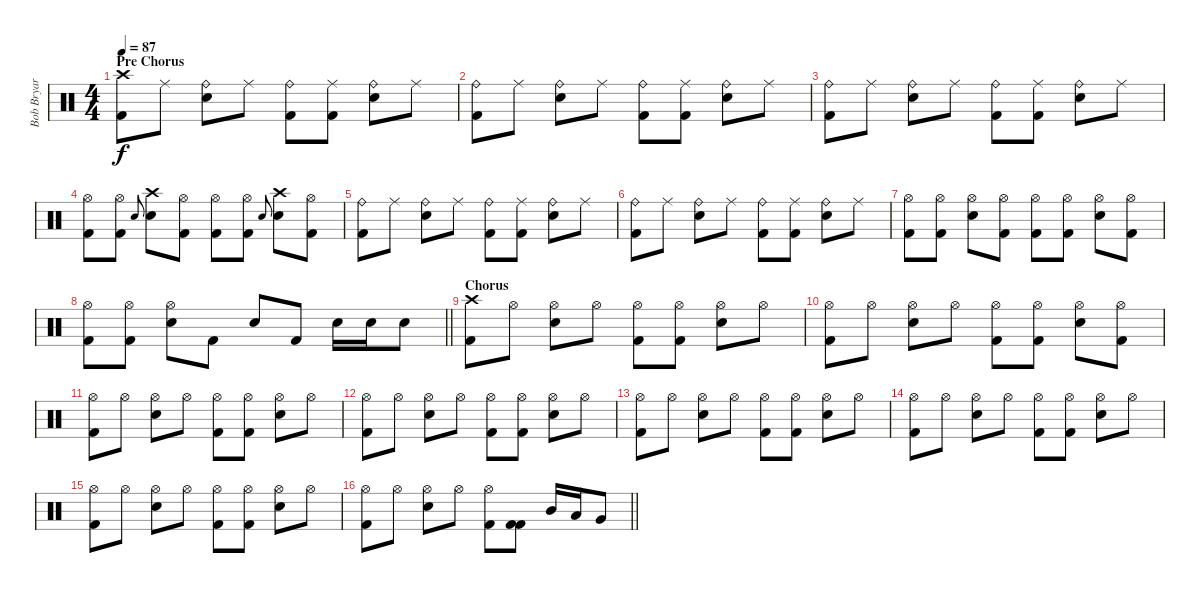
\track ("Bob Bryar" "Bob Bryar") {instrument percussion}
\staff {score}
\articulation defaults
\ts (4 4)
\section ("" "Pre Chorus")
\tempo 87
\clef neutral
\ks c
("Crash high (hit)" "Kick (hit) 2").8{dy f} "Ride (middle)".8 ("Ride (bell)" "Electric Snare (hit)").8 "Ride (middle)".8 ("Ride (bell)" "Kick (hit) 2").8 ("Ride (middle)" "Kick (hit) 2").8 ("Ride (bell)" "Electric Snare (hit)").8 "Ride (middle)".8 |
("Ride (bell)" "Kick (hit) 2").8 "Ride (middle)".8 ("Ride (bell)" "Electric Snare (hit)").8 "Ride (middle)".8 ("Ride (bell)" "Kick (hit) 2").8 ("Ride (middle)" "Kick (hit) 2").8 ("Ride (bell)" "Electric Snare (hit)").8 "Ride (middle)".8 |
("Ride (bell)" "Kick (hit) 2").8 "Ride (middle)".8 ("Ride (bell)" "Electric Snare (hit)").8 "Ride (middle)".8 ("Ride (bell)" "Kick (hit) 2").8 ("Ride (middle)" "Kick (hit) 2").8 ("Ride (bell)" "Electric Snare (hit)").8 "Ride (middle)".8 |
("Hi-Hat (open)" "Kick (hit) 2").8 ("Hi-Hat (open)" "Kick (hit) 2").8 "Electric Snare (hit)".8{gr onbeat} ("Crash high (hit)" "Electric Snare (hit)").8 ("Hi-Hat (open)" "Kick (hit) 2").8 ("Hi-Hat (open)" "Kick (hit) 2").8 ("Hi-Hat (open)" "Kick (hit) 2").8 "Electric Snare (hit)".8{gr onbeat} ("Crash high (hit)" "Electric Snare (hit)").8 ("Hi-Hat (open)" "Kick (hit) 2").8 |
("Ride (bell)" "Kick (hit) 2").8 "Ride (middle)".8 ("Ride (bell)" "Electric Snare (hit)").8 "Ride (middle)".8 ("Ride (bell)" "Kick (hit) 2").8 ("Ride (middle)" "Kick (hit) 2").8 ("Ride (bell)" "Electric Snare (hit)").8 "Ride (middle)".8 |
("Ride (bell)" "Kick (hit) 2").8 "Ride (middle)".8 ("Ride (bell)" "Electric Snare (hit)").8 "Ride (middle)".8 ("Ride (bell)" "Kick (hit) 2").8 ("Ride (middle)" "Kick (hit) 2").8 ("Ride (bell)" "Electric Snare (hit)").8 "Ride (middle)".8 |
("Hi-Hat (open)" "Kick (hit) 2").8 ("Hi-Hat (open)" "Kick (hit) 2").8 ("Hi-Hat (open)" "Electric Snare (hit)").8 ("Hi-Hat (open)" "Kick (hit) 2").8 ("Hi-Hat (open)" "Kick (hit) 2").8 ("Hi-Hat (open)" "Kick (hit) 2").8 ("Hi-Hat (open)" "Electric Snare (hit)").8 ("Hi-Hat (open)" "Kick (hit) 2").8 |
\barLineRight lightlight
("Hi-Hat (open)" "Kick (hit) 2").8 ("Hi-Hat (open)" "Kick (hit) 2").8 ("Hi-Hat (open)" "Electric Snare (hit)").8 "Kick (hit) 2".8 "Electric Snare (hit)".8 "Kick (hit) 2".8 "Electric Snare (hit)".16 "Electric Snare (hit)".16 "Electric Snare (hit)".8 |
\section ("" "Chorus ")
("Crash high (hit)" "Kick (hit) 2").8 "Hi-Hat (open)".8 ("Hi-Hat (open)" "Electric Snare (hit)").8 "Hi-Hat (open)".8 ("Hi-Hat (open)" "Kick (hit) 2").8 ("Hi-Hat (open)" "Kick (hit) 2").8 ("Hi-Hat (open)" "Electric Snare (hit)").8 "Hi-Hat (open)".8 |
("Hi-Hat (open)" "Kick (hit) 2").8 "Hi-Hat (open)".8 ("Hi-Hat (open)" "Electric Snare (hit)").8 "Hi-Hat (open)".8 ("Hi-Hat (open)" "Kick (hit) 2").8 ("Hi-Hat (open)" "Kick (hit) 2").8 ("Hi-Hat (open)" "Electric Snare (hit)").8 ("Hi-Hat (open)" "Kick (hit) 2").8 |
("Hi-Hat (open)" "Kick (hit) 2").8 "Hi-Hat (open)".8 ("Hi-Hat (open)" "Electric Snare (hit)").8 "Hi-Hat (open)".8 ("Hi-Hat (open)" "Kick (hit) 2").8 ("Hi-Hat (open)" "Kick (hit) 2").8 ("Hi-Hat (open)" "Electric Snare (hit)").8 "Hi-Hat (open)".8 |
("Hi-Hat (open)" "Kick (hit) 2").8 "Hi-Hat (open)".8 ("Hi-Hat (open)" "Electric Snare (hit)").8 "Hi-Hat (open)".8 ("Hi-Hat (open)" "Kick (hit) 2").8 ("Hi-Hat (open)" "Kick (hit) 2").8 ("Hi-Hat (open)" "Electric Snare (hit)").8 "Hi-Hat (open)".8 |
("Hi-Hat (open)" "Kick (hit) 2").8 "Hi-Hat (open)".8 ("Hi-Hat (open)" "Electric Snare (hit)").8 "Hi-Hat (open)".8 ("Hi-Hat (open)" "Kick (hit) 2").8 ("Hi-Hat (open)" "Kick (hit) 2").8 ("Hi-Hat (open)" "Electric Snare (hit)").8 "Hi-Hat (open)".8 |
("Hi-Hat (open)" "Kick (hit) 2").8 "Hi-Hat (open)".8 ("Hi-Hat (open)" "Electric Snare (hit)").8 "Hi-Hat (open)".8 ("Hi-Hat (open)" "Kick (hit) 2").8 ("Hi-Hat (open)" "Kick (hit) 2").8 ("Hi-Hat (open)" "Electric Snare (hit)").8 "Hi-Hat (open)".8 |
("Hi-Hat (open)" "Kick (hit) 2").8 "Hi-Hat (open)".8 ("Hi-Hat (open)" "Electric Snare (hit)").8 "Hi-Hat (open)".8 ("Hi-Hat (open)" "Kick (hit) 2").8 ("Hi-Hat (open)" "Kick (hit) 2").8 ("Hi-Hat (open)" "Electric Snare (hit)").8 "Hi-Hat (open)".8 |
\barLineRight lightlight
("Hi-Hat (open)" "Kick (hit) 2").8 "Hi-Hat (open)".8 ("Hi-Hat (open)" "Electric Snare (hit)").8 "Hi-Hat (open)".8 ("Hi-Hat (open)" "Kick (hit) 2").8 ("Kick (hit) 2" "Kick (hit) 2").8 "Mid Tom (hit)".16 "Low Tom (hit)".16 "Very Low Tom (hit)".8
